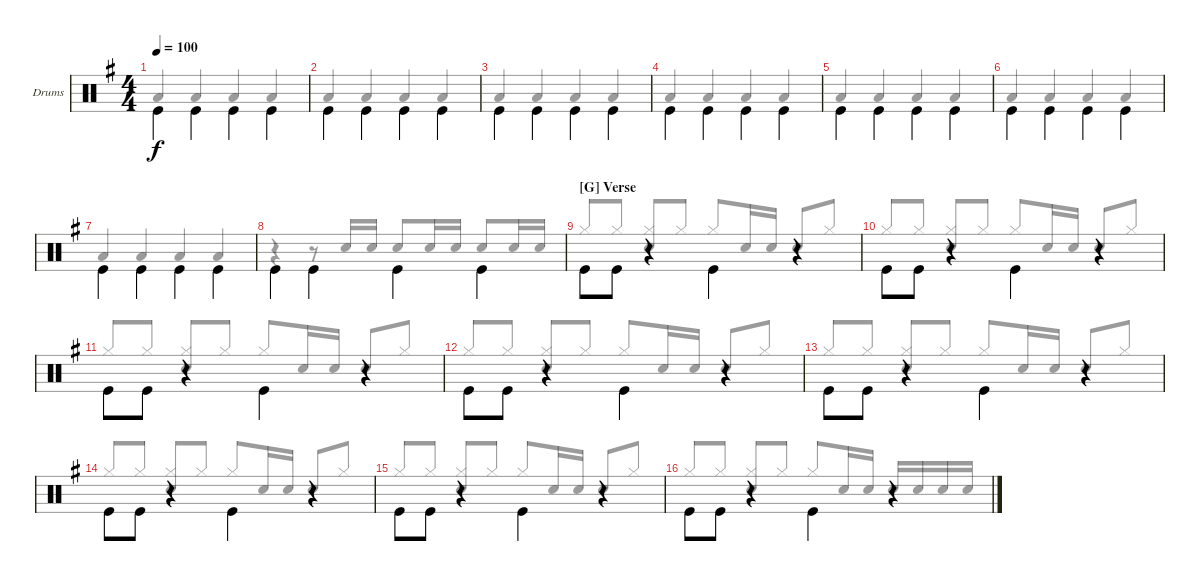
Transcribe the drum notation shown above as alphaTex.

\bracketExtendMode groupsimilarinstruments
\firstSystemTrackNameOrientation horizontal
\otherSystemsTrackNameOrientation horizontal
\track ("Drum" "Drums") {instrument percussion}
\staff {score}
\articulation defaults
\voice
\ts (4 4)
\tempo 100
\clef neutral
\scale
1.04288
\ks g "Kick (hit)".4{dy f beam invert} "Kick (hit)".4{beam invert} "Kick (hit)".4{beam invert} "Kick (hit)".4{beam invert}
|
\scale
0.957125 "Kick (hit)".4{beam invert} "Kick (hit)".4{beam invert} "Kick (hit)".4{beam invert} "Kick (hit)".4{beam invert} |
\scale
1.04288 "Kick (hit)".4{beam invert} "Kick (hit)".4{beam invert} "Kick (hit)".4{beam invert} "Kick (hit)".4{beam invert} |
\scale
0.957125 "Kick (hit)".4{beam invert} "Kick (hit)".4{beam invert} "Kick (hit)".4{beam invert} "Kick (hit)".4{beam invert} |
\scale
1.04288 "Kick (hit)".4{beam invert} "Kick (hit)".4{beam invert} "Kick (hit)".4{beam invert} "Kick (hit)".4{beam invert} |
\scale
0.957125 "Kick (hit)".4{beam invert} "Kick (hit)".4{beam invert} "Kick (hit)".4{beam invert} "Kick (hit)".4{beam invert} |
\scale
1.04288 "Kick (hit)".4{beam invert} "Kick (hit)".4{beam invert} "Kick (hit)".4{beam invert} "Kick (hit)".4{beam invert} |
\scale
0.957125 "Kick (hit)".4{beam invert} "Kick (hit)".4{beam invert} "Kick (hit)".4{beam invert} "Kick (hit)".4{beam invert} |
\section ("G" "Verse")
\scale
1.04288 "Kick (hit)".8{beam invert} "Kick (hit)".8 r.4 "Kick (hit)".4{beam invert} r.4 |
\scale
0.957125 "Kick (hit)".8{beam invert} "Kick (hit)".8 r.4 "Kick (hit)".4{beam invert} r.4 |
\scale
1.04288 "Kick (hit)".8{beam invert} "Kick (hit)".8 r.4 "Kick (hit)".4{beam invert} r.4 |
\scale
0.957125 "Kick (hit)".8{beam invert} "Kick (hit)".8 r.4 "Kick (hit)".4{beam invert} r.4 |
\scale
1.04288 "Kick (hit)".8{beam invert} "Kick (hit)".8 r.4 "Kick (hit)".4{beam invert} r.4 |
\scale
0.957125 "Kick (hit)".8{beam invert} "Kick (hit)".8 r.4 "Kick (hit)".4{beam invert} r.4 |
\scale
1.04288 "Kick (hit)".8{beam invert} "Kick (hit)".8 r.4 "Kick (hit)".4{beam invert} r.4 |
\scale
0.957125 "Kick (hit)".8{beam invert} "Kick (hit)".8 r.4 "Kick (hit)".4{beam invert} r.4
\voice
\clef neutral
\ottava regular
\simile none
\scale
1.04288
\ks g "Low Tom (hit)".4{dy f beam invert} "Low Tom (hit)".4{beam invert} "Low Tom (hit)".4{beam invert} "Low Tom (hit)".4{beam invert}
|
\scale
0.957125 "Low Tom (hit)".4{beam invert} "Low Tom (hit)".4{beam invert} "Low Tom (hit)".4{beam invert} "Low Tom (hit)".4{beam invert} |
\scale
1.04288 "Low Tom (hit)".4{beam invert} "Low Tom (hit)".4{beam invert} "Low Tom (hit)".4{beam invert} "Low Tom (hit)".4{beam invert} |
\scale
0.957125 "Low Tom (hit)".4{beam invert} "Low Tom (hit)".4{beam invert} "Low Tom (hit)".4{beam invert} "Low Tom (hit)".4{beam invert} |
\scale
1.04288 "Low Tom (hit)".4{beam invert} "Low Tom (hit)".4{beam invert} "Low Tom (hit)".4{beam invert} "Low Tom (hit)".4{beam invert} |
\scale
0.957125 "Low Tom (hit)".4{beam invert} "Low Tom (hit)".4{beam invert} "Low Tom (hit)".4{beam invert} "Low Tom (hit)".4{beam invert} |
\scale
1.04288 "Low Tom (hit)".4{beam invert} "Low Tom (hit)".4{beam invert} "Low Tom (hit)".4{beam invert} "Low Tom (hit)".4{beam invert} |
\scale
0.957125 r.4 r.8 "Snare (hit) 2".16{beam invert} "Snare (hit) 2".16 "Snare (hit) 2".8{beam invert} "Snare (hit) 2".16 "Snare (hit) 2".16 "Snare (hit) 2".8{beam invert} "Snare (hit) 2".16 "Snare (hit) 2".16 |
\scale
1.04288 "Hi-Hat (closed)".8{beam invert} "Hi-Hat (closed)".8 ("Hi-Hat (closed)" "Snare (hit) 2").8{beam invert} "Hi-Hat (closed)".8 "Hi-Hat (closed)".8{beam invert} "Snare (hit) 2".16 "Snare (hit) 2".16 "Snare (hit) 2".8{beam invert} "Hi-Hat (closed)".8 |
\scale
0.957125 "Hi-Hat (closed)".8{beam invert} "Hi-Hat (closed)".8 ("Hi-Hat (closed)" "Snare (hit) 2").8{beam invert} "Hi-Hat (closed)".8 "Hi-Hat (closed)".8{beam invert} "Snare (hit) 2".16 "Snare (hit) 2".16 "Snare (hit) 2".8{beam invert} "Hi-Hat (closed)".8 |
\scale
1.04288 "Hi-Hat (closed)".8{beam invert} "Hi-Hat (closed)".8 ("Hi-Hat (closed)" "Snare (hit) 2").8{beam invert} "Hi-Hat (closed)".8 "Hi-Hat (closed)".8{beam invert} "Snare (hit) 2".16 "Snare (hit) 2".16 "Snare (hit) 2".8{beam invert} "Hi-Hat (closed)".8 |
\scale
0.957125 "Hi-Hat (closed)".8{beam invert} "Hi-Hat (closed)".8 ("Hi-Hat (closed)" "Snare (hit) 2").8{beam invert} "Hi-Hat (closed)".8 "Hi-Hat (closed)".8{beam invert} "Snare (hit) 2".16 "Snare (hit) 2".16 "Snare (hit) 2".8{beam invert} "Hi-Hat (closed)".8 |
\scale
1.04288 "Hi-Hat (closed)".8{beam invert} "Hi-Hat (closed)".8 ("Hi-Hat (closed)" "Snare (hit) 2").8{beam invert} "Hi-Hat (closed)".8 "Hi-Hat (closed)".8{beam invert} "Snare (hit) 2".16 "Snare (hit) 2".16 "Snare (hit) 2".8{beam invert} "Hi-Hat (closed)".8 |
\scale
0.957125 "Hi-Hat (closed)".8{beam invert} "Hi-Hat (closed)".8 ("Hi-Hat (closed)" "Snare (hit) 2").8{beam invert} "Hi-Hat (closed)".8 "Hi-Hat (closed)".8{beam invert} "Snare (hit) 2".16 "Snare (hit) 2".16 "Snare (hit) 2".8{beam invert} "Hi-Hat (closed)".8 |
\scale
1.04288 "Hi-Hat (closed)".8{beam invert} "Hi-Hat (closed)".8 ("Hi-Hat (closed)" "Snare (hit) 2").8{beam invert} "Hi-Hat (closed)".8 "Hi-Hat (closed)".8{beam invert} "Snare (hit) 2".16 "Snare (hit) 2".16 "Snare (hit) 2".8{beam invert} "Hi-Hat (closed)".8 |
\scale
0.957125 "Hi-Hat (closed)".8{beam invert} "Hi-Hat (closed)".8 ("Hi-Hat (closed)" "Snare (hit) 2").8{beam invert} "Hi-Hat (closed)".8 "Hi-Hat (closed)".8{beam invert} "Snare (hit) 2".16 "Snare (hit) 2".16 "Snare (hit) 2".16{beam invert} "Snare (hit) 2".16 "Snare (hit) 2".16 "Snare (hit) 2".16
